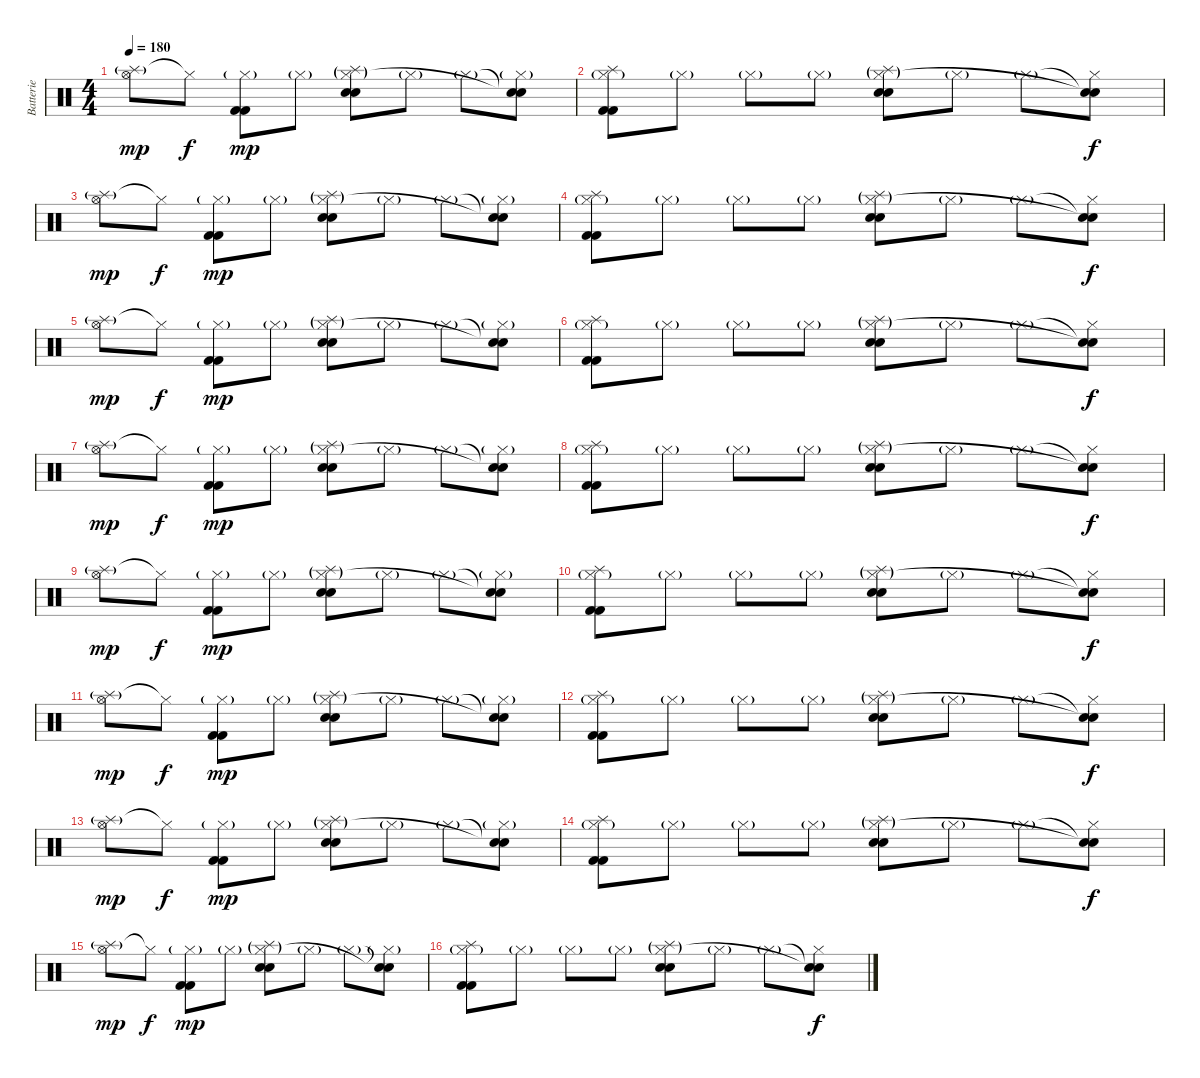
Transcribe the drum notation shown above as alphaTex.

\track ("Batterie" "Batterie") {instrument percussion}
\staff {score}
\articulation defaults
\ts (4 4)
\tempo 180
\clef neutral
\ks c
("Splash (hit)"{g} "Hi-Hat (open)").8{dy mp} "Hi-Hat (closed)"{t}.8{dy f} ("Hi-Hat (closed)"{g} "Kick (hit) 2" "Kick (hit) 2").8{dy mp} "Hi-Hat (closed)"{g}.8 ("Splash (hit)"{g} "Hi-Hat (closed)"{g} "Electric Snare (hit)" "Snare (hit) 2").8 "Hi-Hat (closed)"{g}.8 "Hi-Hat (closed)"{g}.8 ("Snare (hit)"{t} "Snare (hit)"{t} "Hi-Hat (closed)"{g}).8 |
("Splash (hit)" "Hi-Hat (closed)"{g} "Kick (hit) 2" "Kick (hit) 2").8 "Hi-Hat (closed)"{g}.8 "Hi-Hat (closed)"{g}.8 "Hi-Hat (closed)"{g}.8 ("Splash (hit)"{g} "Hi-Hat (closed)"{g} "Electric Snare (hit)" "Snare (hit) 2").8 "Hi-Hat (closed)"{g}.8 "Hi-Hat (closed)"{g}.8 ("Snare (hit)"{t} "Snare (hit)"{t} "Hi-Hat (closed)").8{dy f} |
("Splash (hit)"{g} "Hi-Hat (open)").8{dy mp} "Hi-Hat (closed)"{t}.8{dy f} ("Hi-Hat (closed)"{g} "Kick (hit) 2" "Kick (hit) 2").8{dy mp} "Hi-Hat (closed)"{g}.8 ("Splash (hit)"{g} "Hi-Hat (closed)"{g} "Electric Snare (hit)" "Snare (hit) 2").8 "Hi-Hat (closed)"{g}.8 "Hi-Hat (closed)"{g}.8 ("Snare (hit)"{t} "Snare (hit)"{t} "Hi-Hat (closed)"{g}).8 |
("Splash (hit)" "Hi-Hat (closed)"{g} "Kick (hit) 2" "Kick (hit) 2").8 "Hi-Hat (closed)"{g}.8 "Hi-Hat (closed)"{g}.8 "Hi-Hat (closed)"{g}.8 ("Splash (hit)"{g} "Hi-Hat (closed)"{g} "Electric Snare (hit)" "Snare (hit) 2").8 "Hi-Hat (closed)"{g}.8 "Hi-Hat (closed)"{g}.8 ("Snare (hit)"{t} "Snare (hit)"{t} "Hi-Hat (closed)").8{dy f} |
("Splash (hit)"{g} "Hi-Hat (open)").8{dy mp} "Hi-Hat (closed)"{t}.8{dy f} ("Hi-Hat (closed)"{g} "Kick (hit) 2" "Kick (hit) 2").8{dy mp} "Hi-Hat (closed)"{g}.8 ("Splash (hit)"{g} "Hi-Hat (closed)"{g} "Electric Snare (hit)" "Snare (hit) 2").8 "Hi-Hat (closed)"{g}.8 "Hi-Hat (closed)"{g}.8 ("Snare (hit)"{t} "Snare (hit)"{t} "Hi-Hat (closed)"{g}).8 |
("Splash (hit)" "Hi-Hat (closed)"{g} "Kick (hit) 2" "Kick (hit) 2").8 "Hi-Hat (closed)"{g}.8 "Hi-Hat (closed)"{g}.8 "Hi-Hat (closed)"{g}.8 ("Splash (hit)"{g} "Hi-Hat (closed)"{g} "Electric Snare (hit)" "Snare (hit) 2").8 "Hi-Hat (closed)"{g}.8 "Hi-Hat (closed)"{g}.8 ("Snare (hit)"{t} "Snare (hit)"{t} "Hi-Hat (closed)").8{dy f} |
("Splash (hit)"{g} "Hi-Hat (open)").8{dy mp} "Hi-Hat (closed)"{t}.8{dy f} ("Hi-Hat (closed)"{g} "Kick (hit) 2" "Kick (hit) 2").8{dy mp} "Hi-Hat (closed)"{g}.8 ("Splash (hit)"{g} "Hi-Hat (closed)"{g} "Electric Snare (hit)" "Snare (hit) 2").8 "Hi-Hat (closed)"{g}.8 "Hi-Hat (closed)"{g}.8 ("Snare (hit)"{t} "Snare (hit)"{t} "Hi-Hat (closed)"{g}).8 |
("Splash (hit)" "Hi-Hat (closed)"{g} "Kick (hit) 2" "Kick (hit) 2").8 "Hi-Hat (closed)"{g}.8 "Hi-Hat (closed)"{g}.8 "Hi-Hat (closed)"{g}.8 ("Splash (hit)"{g} "Hi-Hat (closed)"{g} "Electric Snare (hit)" "Snare (hit) 2").8 "Hi-Hat (closed)"{g}.8 "Hi-Hat (closed)"{g}.8 ("Snare (hit)"{t} "Snare (hit)"{t} "Hi-Hat (closed)").8{dy f} |
("Splash (hit)"{g} "Hi-Hat (open)").8{dy mp} "Hi-Hat (closed)"{t}.8{dy f} ("Hi-Hat (closed)"{g} "Kick (hit) 2" "Kick (hit) 2").8{dy mp} "Hi-Hat (closed)"{g}.8 ("Splash (hit)"{g} "Hi-Hat (closed)"{g} "Electric Snare (hit)" "Snare (hit) 2").8 "Hi-Hat (closed)"{g}.8 "Hi-Hat (closed)"{g}.8 ("Snare (hit)"{t} "Snare (hit)"{t} "Hi-Hat (closed)"{g}).8 |
("Splash (hit)" "Hi-Hat (closed)"{g} "Kick (hit) 2" "Kick (hit) 2").8 "Hi-Hat (closed)"{g}.8 "Hi-Hat (closed)"{g}.8 "Hi-Hat (closed)"{g}.8 ("Splash (hit)"{g} "Hi-Hat (closed)"{g} "Electric Snare (hit)" "Snare (hit) 2").8 "Hi-Hat (closed)"{g}.8 "Hi-Hat (closed)"{g}.8 ("Snare (hit)"{t} "Snare (hit)"{t} "Hi-Hat (closed)").8{dy f} |
("Splash (hit)"{g} "Hi-Hat (open)").8{dy mp} "Hi-Hat (closed)"{t}.8{dy f} ("Hi-Hat (closed)"{g} "Kick (hit) 2" "Kick (hit) 2").8{dy mp} "Hi-Hat (closed)"{g}.8 ("Splash (hit)"{g} "Hi-Hat (closed)"{g} "Electric Snare (hit)" "Snare (hit) 2").8 "Hi-Hat (closed)"{g}.8 "Hi-Hat (closed)"{g}.8 ("Snare (hit)"{t} "Snare (hit)"{t} "Hi-Hat (closed)"{g}).8 |
("Splash (hit)" "Hi-Hat (closed)"{g} "Kick (hit) 2" "Kick (hit) 2").8 "Hi-Hat (closed)"{g}.8 "Hi-Hat (closed)"{g}.8 "Hi-Hat (closed)"{g}.8 ("Splash (hit)"{g} "Hi-Hat (closed)"{g} "Electric Snare (hit)" "Snare (hit) 2").8 "Hi-Hat (closed)"{g}.8 "Hi-Hat (closed)"{g}.8 ("Snare (hit)"{t} "Snare (hit)"{t} "Hi-Hat (closed)").8{dy f} |
("Splash (hit)"{g} "Hi-Hat (open)").8{dy mp volume 0} "Hi-Hat (closed)"{t}.8{dy f} ("Hi-Hat (closed)"{g} "Kick (hit) 2" "Kick (hit) 2").8{dy mp} "Hi-Hat (closed)"{g}.8 ("Splash (hit)"{g} "Hi-Hat (closed)"{g} "Electric Snare (hit)" "Snare (hit) 2").8 "Hi-Hat (closed)"{g}.8 "Hi-Hat (closed)"{g}.8 ("Snare (hit)"{t} "Snare (hit)"{t} "Hi-Hat (closed)"{g}).8 |
("Splash (hit)" "Hi-Hat (closed)"{g} "Kick (hit) 2" "Kick (hit) 2").8 "Hi-Hat (closed)"{g}.8 "Hi-Hat (closed)"{g}.8 "Hi-Hat (closed)"{g}.8 ("Splash (hit)"{g} "Hi-Hat (closed)"{g} "Electric Snare (hit)" "Snare (hit) 2").8 "Hi-Hat (closed)"{g}.8 "Hi-Hat (closed)"{g}.8 ("Snare (hit)"{t} "Snare (hit)"{t} "Hi-Hat (closed)").8{dy f} |
("Splash (hit)"{g} "Hi-Hat (open)").8{dy mp} "Hi-Hat (closed)"{t}.8{dy f} ("Hi-Hat (closed)"{g} "Kick (hit) 2" "Kick (hit) 2").8{dy mp} "Hi-Hat (closed)"{g}.8 ("Splash (hit)"{g} "Hi-Hat (closed)"{g} "Electric Snare (hit)" "Snare (hit) 2").8 "Hi-Hat (closed)"{g}.8 "Hi-Hat (closed)"{g}.8 ("Snare (hit)"{t} "Snare (hit)"{t} "Hi-Hat (closed)"{g}).8 |
("Splash (hit)" "Hi-Hat (closed)"{g} "Kick (hit) 2" "Kick (hit) 2").8 "Hi-Hat (closed)"{g}.8 "Hi-Hat (closed)"{g}.8 "Hi-Hat (closed)"{g}.8 ("Splash (hit)"{g} "Hi-Hat (closed)"{g} "Electric Snare (hit)" "Snare (hit) 2").8 "Hi-Hat (closed)"{g}.8 "Hi-Hat (closed)"{g}.8 ("Snare (hit)"{t} "Snare (hit)"{t} "Hi-Hat (closed)").8{dy f}
